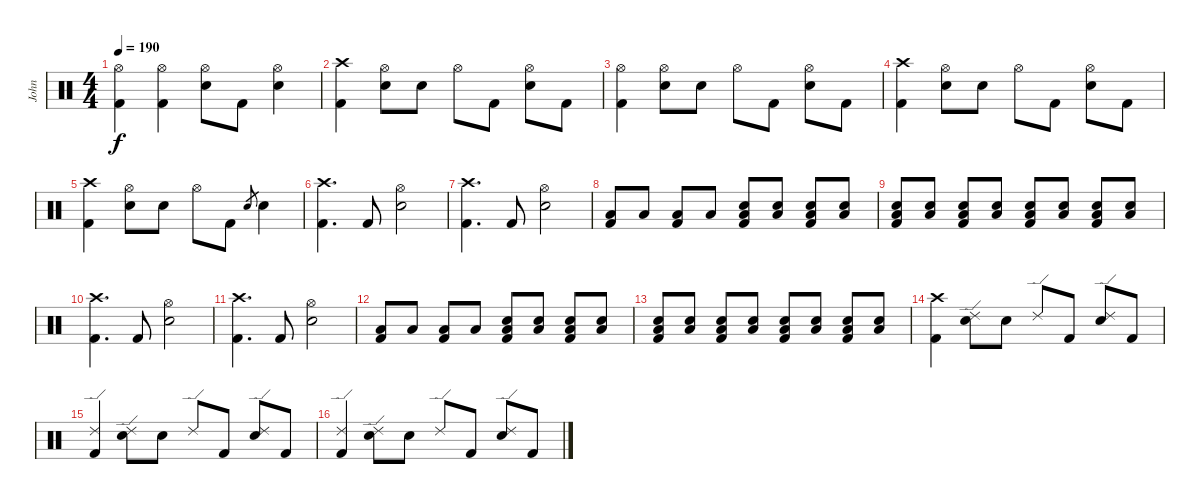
\track ("John" "John") {instrument percussion}
\staff {score}
\articulation defaults
\ts (4 4)
\tempo 190
\clef neutral
\ks c
("Kick (hit) 2" "Hi-Hat (open)").4{dy f} ("Kick (hit) 2" "Hi-Hat (open)").4 ("Snare (hit) 2" "Hi-Hat (open)").8 "Kick (hit) 2".8 ("Snare (hit) 2" "Hi-Hat (open)").4 |
("Kick (hit) 2" "Crash high (hit)").4 ("Snare (hit) 2" "Hi-Hat (open)").8 "Snare (hit) 2".8 "Hi-Hat (open)".8 "Kick (hit) 2".8 ("Snare (hit) 2" "Hi-Hat (open)").8 "Kick (hit) 2".8 |
("Kick (hit) 2" "Hi-Hat (open)").4 ("Snare (hit) 2" "Hi-Hat (open)").8 "Snare (hit) 2".8 "Hi-Hat (open)".8 "Kick (hit) 2".8 ("Snare (hit) 2" "Hi-Hat (open)").8 "Kick (hit) 2".8 |
("Kick (hit) 2" "Crash high (hit)").4 ("Snare (hit) 2" "Hi-Hat (open)").8 "Snare (hit) 2".8 "Hi-Hat (open)".8 "Kick (hit) 2".8 ("Snare (hit) 2" "Hi-Hat (open)").8 "Kick (hit) 2".8 |
("Kick (hit) 2" "Crash high (hit)").4 ("Snare (hit) 2" "Hi-Hat (open)").8 "Snare (hit) 2".8 "Hi-Hat (open)".8 "Kick (hit) 2".8 "Snare (hit) 2".8{gr} "Snare (hit) 2".4 |
("Kick (hit) 2" "Crash high (hit)").4{d} "Kick (hit) 2".8 ("Snare (hit) 2" "Hi-Hat (open)").2 |
("Kick (hit) 2" "Crash high (hit)").4{d} "Kick (hit) 2".8 ("Snare (hit) 2" "Hi-Hat (open)").2 |
("Low Tom (hit)" "Kick (hit) 2").8 "Low Tom (hit)".8 ("Low Tom (hit)" "Kick (hit) 2").8 "Low Tom (hit)".8 ("Snare (hit) 2" "Low Tom (hit)" "Kick (hit) 2").8 ("Snare (hit) 2" "Low Tom (hit)").8 ("Snare (hit) 2" "Low Tom (hit)" "Kick (hit) 2").8 ("Snare (hit) 2" "Low Tom (hit)").8 |
("Snare (hit) 2" "Low Tom (hit)" "Kick (hit) 2").8 ("Snare (hit) 2" "Low Tom (hit)").8 ("Snare (hit) 2" "Low Tom (hit)" "Kick (hit) 2").8 ("Snare (hit) 2" "Low Tom (hit)").8 ("Snare (hit) 2" "Low Tom (hit)" "Kick (hit) 2").8 ("Snare (hit) 2" "Low Tom (hit)").8 ("Snare (hit) 2" "Low Tom (hit)" "Kick (hit) 2").8 ("Snare (hit) 2" "Low Tom (hit)").8 |
("Kick (hit) 2" "Crash high (hit)").4{d} "Kick (hit) 2".8 ("Snare (hit) 2" "Hi-Hat (open)").2 |
("Kick (hit) 2" "Crash high (hit)").4{d} "Kick (hit) 2".8 ("Snare (hit) 2" "Hi-Hat (open)").2 |
("Low Tom (hit)" "Kick (hit) 2").8 "Low Tom (hit)".8 ("Low Tom (hit)" "Kick (hit) 2").8 "Low Tom (hit)".8 ("Snare (hit) 2" "Low Tom (hit)" "Kick (hit) 2").8 ("Snare (hit) 2" "Low Tom (hit)").8 ("Snare (hit) 2" "Low Tom (hit)" "Kick (hit) 2").8 ("Snare (hit) 2" "Low Tom (hit)").8 |
("Snare (hit) 2" "Low Tom (hit)" "Kick (hit) 2").8 ("Snare (hit) 2" "Low Tom (hit)").8 ("Snare (hit) 2" "Low Tom (hit)" "Kick (hit) 2").8 ("Snare (hit) 2" "Low Tom (hit)").8 ("Snare (hit) 2" "Low Tom (hit)" "Kick (hit) 2").8 ("Snare (hit) 2" "Low Tom (hit)").8 ("Snare (hit) 2" "Low Tom (hit)" "Kick (hit) 2").8 ("Snare (hit) 2" "Low Tom (hit)").8 |
("Kick (hit) 2" "Crash high (hit)").4 ("Snare (hit) 2" "Ride (edge) 2").8 "Snare (hit) 2".8 "Ride (edge) 2".8 "Kick (hit) 2".8 ("Snare (hit) 2" "Ride (edge) 2").8 "Kick (hit) 2".8 |
("Kick (hit) 2" "Ride (edge) 2").4 ("Snare (hit) 2" "Ride (edge) 2").8 "Snare (hit) 2".8 "Ride (edge) 2".8 "Kick (hit) 2".8 ("Snare (hit) 2" "Ride (edge) 2").8 "Kick (hit) 2".8 |
("Kick (hit) 2" "Ride (edge) 2").4 ("Snare (hit) 2" "Ride (edge) 2").8 "Snare (hit) 2".8 "Ride (edge) 2".8 "Kick (hit) 2".8 ("Snare (hit) 2" "Ride (edge) 2").8 "Kick (hit) 2".8
